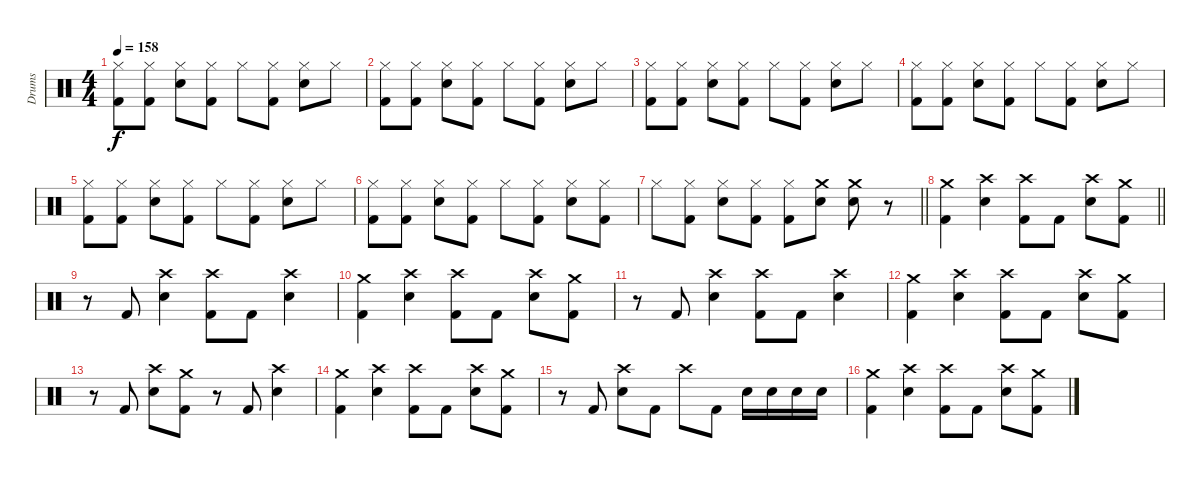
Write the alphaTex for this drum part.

\track ("Drums" "Drums") {instrument percussion}
\staff {score}
\articulation defaults
\ts (4 4)
\tempo 158
\clef neutral
\ks c
("Hi-Hat (closed)" "Kick (hit) 2").8{dy f} ("Hi-Hat (closed)" "Kick (hit) 2").8 ("Hi-Hat (closed)" "Electric Snare (hit)").8 ("Hi-Hat (closed)" "Kick (hit) 2").8 "Hi-Hat (closed)".8 ("Hi-Hat (closed)" "Kick (hit) 2").8 ("Hi-Hat (closed)" "Electric Snare (hit)").8 "Hi-Hat (closed)".8 |
("Hi-Hat (closed)" "Kick (hit) 2").8 ("Hi-Hat (closed)" "Kick (hit) 2").8 ("Hi-Hat (closed)" "Electric Snare (hit)").8 ("Hi-Hat (closed)" "Kick (hit) 2").8 "Hi-Hat (closed)".8 ("Hi-Hat (closed)" "Kick (hit) 2").8 ("Hi-Hat (closed)" "Electric Snare (hit)").8 "Hi-Hat (closed)".8 |
("Hi-Hat (closed)" "Kick (hit) 2").8 ("Hi-Hat (closed)" "Kick (hit) 2").8 ("Hi-Hat (closed)" "Electric Snare (hit)").8 ("Hi-Hat (closed)" "Kick (hit) 2").8 "Hi-Hat (closed)".8 ("Hi-Hat (closed)" "Kick (hit) 2").8 ("Hi-Hat (closed)" "Electric Snare (hit)").8 "Hi-Hat (closed)".8 |
("Hi-Hat (closed)" "Kick (hit) 2").8 ("Hi-Hat (closed)" "Kick (hit) 2").8 ("Hi-Hat (closed)" "Electric Snare (hit)").8 ("Hi-Hat (closed)" "Kick (hit) 2").8 "Hi-Hat (closed)".8 ("Hi-Hat (closed)" "Kick (hit) 2").8 ("Hi-Hat (closed)" "Electric Snare (hit)").8 "Hi-Hat (closed)".8 |
("Hi-Hat (closed)" "Kick (hit) 2").8 ("Hi-Hat (closed)" "Kick (hit) 2").8 ("Hi-Hat (closed)" "Electric Snare (hit)").8 ("Hi-Hat (closed)" "Kick (hit) 2").8 "Hi-Hat (closed)".8 ("Hi-Hat (closed)" "Kick (hit) 2").8 ("Hi-Hat (closed)" "Electric Snare (hit)").8 "Hi-Hat (closed)".8 |
("Hi-Hat (closed)" "Kick (hit) 2").8 ("Hi-Hat (closed)" "Kick (hit) 2").8 ("Hi-Hat (closed)" "Electric Snare (hit)").8 ("Hi-Hat (closed)" "Kick (hit) 2").8 "Hi-Hat (closed)".8 ("Hi-Hat (closed)" "Kick (hit) 2").8 ("Hi-Hat (closed)" "Electric Snare (hit)").8 ("Hi-Hat (closed)" "Kick (hit) 2").8 |
\barLineRight lightlight "Hi-Hat (closed)".8
("Hi-Hat (closed)" "Kick (hit) 2").8 ("Hi-Hat (closed)" "Electric Snare (hit)").8 ("Hi-Hat (closed)" "Kick (hit) 2").8 ("Hi-Hat (closed)" "Kick (hit) 2").8 ("Crash medium (hit)" "Electric Snare (hit)").8 ("Crash medium (hit)" "Electric Snare (hit)").8 r.8 |
\barLineRight lightlight
("Crash medium (hit)" "Kick (hit) 2").4 ("Crash high (hit)" "Electric Snare (hit)").4 ("Crash high (hit)" "Kick (hit) 2").8 "Kick (hit) 2".8 ("Crash high (hit)" "Electric Snare (hit)").8 ("Crash medium (hit)" "Kick (hit) 2").8 |
r.8 "Kick (hit) 2".8 ("Crash high (hit)" "Electric Snare (hit)").4 ("Crash high (hit)" "Kick (hit) 2").8 "Kick (hit) 2".8 ("Crash high (hit)" "Electric Snare (hit)").4 |
("Crash medium (hit)" "Kick (hit) 2").4 ("Crash high (hit)" "Electric Snare (hit)").4 ("Crash high (hit)" "Kick (hit) 2").8 "Kick (hit) 2".8 ("Crash high (hit)" "Electric Snare (hit)").8 ("Crash medium (hit)" "Kick (hit) 2").8 |
r.8 "Kick (hit) 2".8 ("Crash high (hit)" "Electric Snare (hit)").4 ("Crash high (hit)" "Kick (hit) 2").8 "Kick (hit) 2".8 ("Crash high (hit)" "Electric Snare (hit)").4 |
("Crash medium (hit)" "Kick (hit) 2").4 ("Crash high (hit)" "Electric Snare (hit)").4 ("Crash high (hit)" "Kick (hit) 2").8 "Kick (hit) 2".8 ("Crash high (hit)" "Electric Snare (hit)").8 ("Crash medium (hit)" "Kick (hit) 2").8 |
r.8 "Kick (hit) 2".8 ("Crash high (hit)" "Electric Snare (hit)").8 ("Crash medium (hit)" "Kick (hit) 2").8 r.8 "Kick (hit) 2".8 ("Crash high (hit)" "Electric Snare (hit)").4 |
("Crash medium (hit)" "Kick (hit) 2").4 ("Crash high (hit)" "Electric Snare (hit)").4 ("Crash high (hit)" "Kick (hit) 2").8 "Kick (hit) 2".8 ("Crash high (hit)" "Electric Snare (hit)").8 ("Crash medium (hit)" "Kick (hit) 2").8 |
r.8 "Kick (hit) 2".8 ("Crash high (hit)" "Electric Snare (hit)").8 "Kick (hit) 2".8 "Crash high (hit)".8 "Kick (hit) 2".8 "Electric Snare (hit)".16 "Electric Snare (hit)".16 "Electric Snare (hit)".16 "Electric Snare (hit)".16 |
("Crash medium (hit)" "Kick (hit) 2").4 ("Crash high (hit)" "Electric Snare (hit)").4 ("Crash high (hit)" "Kick (hit) 2").8 "Kick (hit) 2".8 ("Crash high (hit)" "Electric Snare (hit)").8 ("Crash medium (hit)" "Kick (hit) 2").8
